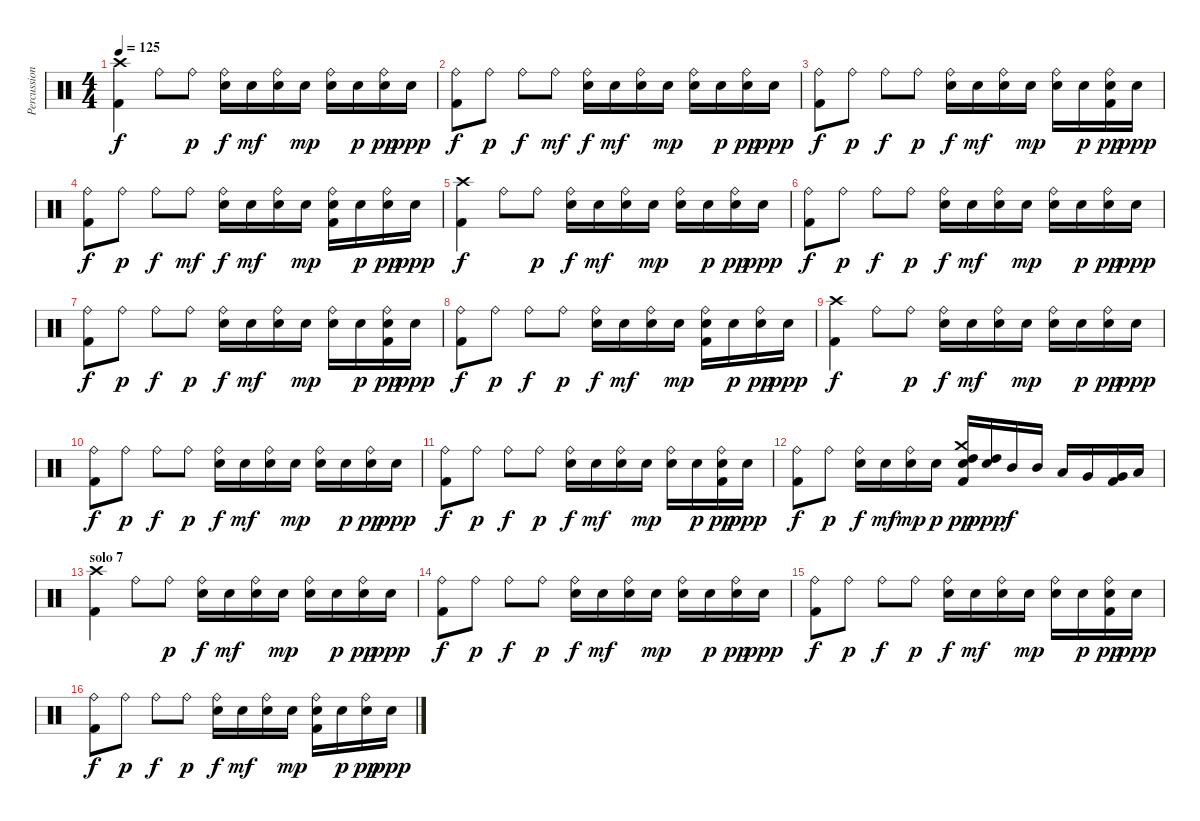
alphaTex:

\track ("Percussion" "Percussion") {instrument percussion}
\staff {score}
\articulation defaults
\ts (4 4)
\tempo 125
\clef neutral
\ks c
("Crash high (hit)" "Kick (hit) 2").4{dy f} "Ride (bell)".8 "Ride (bell)".8{dy p} ("Ride (bell)" "Electric Snare (hit)").16{dy f} "Electric Snare (hit)".16{dy mf} ("Ride (bell)" "Electric Snare (hit)").16 "Electric Snare (hit)".16{dy mp} ("Ride (bell)" "Electric Snare (hit)").16 "Electric Snare (hit)".16{dy p} ("Ride (bell)" "Electric Snare (hit)").16{dy pp} "Electric Snare (hit)".16{dy ppp} |
("Ride (bell)" "Kick (hit) 2").8{dy f} "Ride (bell)".8{dy p} "Ride (bell)".8{dy f} "Ride (bell)".8{dy mf} ("Ride (bell)" "Electric Snare (hit)").16{dy f} "Electric Snare (hit)".16{dy mf} ("Ride (bell)" "Electric Snare (hit)").16 "Electric Snare (hit)".16{dy mp} ("Ride (bell)" "Electric Snare (hit)").16 "Electric Snare (hit)".16{dy p} ("Ride (bell)" "Electric Snare (hit)").16{dy pp} "Electric Snare (hit)".16{dy ppp} |
("Ride (bell)" "Kick (hit) 2").8{dy f} "Ride (bell)".8{dy p} "Ride (bell)".8{dy f} "Ride (bell)".8{dy p} ("Ride (bell)" "Electric Snare (hit)").16{dy f} "Electric Snare (hit)".16{dy mf} ("Ride (bell)" "Electric Snare (hit)").16 "Electric Snare (hit)".16{dy mp} ("Ride (bell)" "Electric Snare (hit)").16 "Electric Snare (hit)".16{dy p} ("Ride (bell)" "Electric Snare (hit)" "Kick (hit) 2").16{dy pp} "Electric Snare (hit)".16{dy ppp} |
("Ride (bell)" "Kick (hit) 2").8{dy f} "Ride (bell)".8{dy p} "Ride (bell)".8{dy f} "Ride (bell)".8{dy mf} ("Ride (bell)" "Electric Snare (hit)").16{dy f} "Electric Snare (hit)".16{dy mf} ("Ride (bell)" "Electric Snare (hit)").16 "Electric Snare (hit)".16{dy mp} ("Ride (bell)" "Electric Snare (hit)" "Kick (hit) 2").16 "Electric Snare (hit)".16{dy p} ("Ride (bell)" "Electric Snare (hit)").16{dy pp} "Electric Snare (hit)".16{dy ppp} |
("Crash high (hit)" "Kick (hit) 2").4{dy f} "Ride (bell)".8 "Ride (bell)".8{dy p} ("Ride (bell)" "Electric Snare (hit)").16{dy f} "Electric Snare (hit)".16{dy mf} ("Ride (bell)" "Electric Snare (hit)").16 "Electric Snare (hit)".16{dy mp} ("Ride (bell)" "Electric Snare (hit)").16 "Electric Snare (hit)".16{dy p} ("Ride (bell)" "Electric Snare (hit)").16{dy pp} "Electric Snare (hit)".16{dy ppp} |
("Ride (bell)" "Kick (hit) 2").8{dy f} "Ride (bell)".8{dy p} "Ride (bell)".8{dy f} "Ride (bell)".8{dy p} ("Ride (bell)" "Electric Snare (hit)").16{dy f} "Electric Snare (hit)".16{dy mf} ("Ride (bell)" "Electric Snare (hit)").16 "Electric Snare (hit)".16{dy mp} ("Ride (bell)" "Electric Snare (hit)").16 "Electric Snare (hit)".16{dy p} ("Ride (bell)" "Electric Snare (hit)").16{dy pp} "Electric Snare (hit)".16{dy ppp} |
("Ride (bell)" "Kick (hit) 2").8{dy f} "Ride (bell)".8{dy p} "Ride (bell)".8{dy f} "Ride (bell)".8{dy p} ("Ride (bell)" "Electric Snare (hit)").16{dy f} "Electric Snare (hit)".16{dy mf} ("Ride (bell)" "Electric Snare (hit)").16 "Electric Snare (hit)".16{dy mp} ("Ride (bell)" "Electric Snare (hit)").16 "Electric Snare (hit)".16{dy p} ("Ride (bell)" "Electric Snare (hit)" "Kick (hit) 2").16{dy pp} "Electric Snare (hit)".16{dy ppp} |
("Ride (bell)" "Kick (hit) 2").8{dy f} "Ride (bell)".8{dy p} "Ride (bell)".8{dy f} "Ride (bell)".8{dy p} ("Ride (bell)" "Electric Snare (hit)").16{dy f} "Electric Snare (hit)".16{dy mf} ("Ride (bell)" "Electric Snare (hit)").16 "Electric Snare (hit)".16{dy mp} ("Ride (bell)" "Electric Snare (hit)" "Kick (hit) 2").16 "Electric Snare (hit)".16{dy p} ("Ride (bell)" "Electric Snare (hit)").16{dy pp} "Electric Snare (hit)".16{dy ppp} |
("Crash high (hit)" "Kick (hit) 2").4{dy f} "Ride (bell)".8 "Ride (bell)".8{dy p} ("Ride (bell)" "Electric Snare (hit)").16{dy f} "Electric Snare (hit)".16{dy mf} ("Ride (bell)" "Electric Snare (hit)").16 "Electric Snare (hit)".16{dy mp} ("Ride (bell)" "Electric Snare (hit)").16 "Electric Snare (hit)".16{dy p} ("Ride (bell)" "Electric Snare (hit)").16{dy pp} "Electric Snare (hit)".16{dy ppp} |
("Ride (bell)" "Kick (hit) 2").8{dy f} "Ride (bell)".8{dy p} "Ride (bell)".8{dy f} "Ride (bell)".8{dy p} ("Ride (bell)" "Electric Snare (hit)").16{dy f} "Electric Snare (hit)".16{dy mf} ("Ride (bell)" "Electric Snare (hit)").16 "Electric Snare (hit)".16{dy mp} ("Ride (bell)" "Electric Snare (hit)").16 "Electric Snare (hit)".16{dy p} ("Ride (bell)" "Electric Snare (hit)").16{dy pp} "Electric Snare (hit)".16{dy ppp} |
("Ride (bell)" "Kick (hit) 2").8{dy f} "Ride (bell)".8{dy p} "Ride (bell)".8{dy f} "Ride (bell)".8{dy p} ("Ride (bell)" "Electric Snare (hit)").16{dy f} "Electric Snare (hit)".16{dy mf} ("Ride (bell)" "Electric Snare (hit)").16 "Electric Snare (hit)".16{dy mp} ("Ride (bell)" "Electric Snare (hit)").16 "Electric Snare (hit)".16{dy p} ("Ride (bell)" "Electric Snare (hit)" "Kick (hit) 2").16{dy pp} "Electric Snare (hit)".16{dy ppp} |
("Ride (bell)" "Kick (hit) 2").8{dy f} "Ride (bell)".8{dy p} ("Ride (bell)" "Electric Snare (hit)").16{dy f} "Electric Snare (hit)".16{dy mf} ("Ride (bell)" "Electric Snare (hit)").16{dy mp} "Electric Snare (hit)".16{dy p} ("Crash medium (hit)" "High Tom (hit)" "Electric Snare (hit)" "Kick (hit) 2").16{dy pp} ("High Tom (hit)" "Electric Snare (hit)").16{dy ppp} "Mid Tom (hit)".16{dy f} "Mid Tom (hit)".16 "Low Tom (hit)".16 "Very Low Tom (hit)".16 ("Very Low Tom (hit)" "Kick (hit) 2").16 "Low Floor Tom (hit)".16 |
\section ("" "solo 7")
("Crash high (hit)" "Kick (hit) 2").4 "Ride (bell)".8 "Ride (bell)".8{dy p} ("Ride (bell)" "Electric Snare (hit)").16{dy f} "Electric Snare (hit)".16{dy mf} ("Ride (bell)" "Electric Snare (hit)").16 "Electric Snare (hit)".16{dy mp} ("Ride (bell)" "Electric Snare (hit)").16 "Electric Snare (hit)".16{dy p} ("Ride (bell)" "Electric Snare (hit)").16{dy pp} "Electric Snare (hit)".16{dy ppp} |
("Ride (bell)" "Kick (hit) 2").8{dy f} "Ride (bell)".8{dy p} "Ride (bell)".8{dy f} "Ride (bell)".8{dy p} ("Ride (bell)" "Electric Snare (hit)").16{dy f} "Electric Snare (hit)".16{dy mf} ("Ride (bell)" "Electric Snare (hit)").16 "Electric Snare (hit)".16{dy mp} ("Ride (bell)" "Electric Snare (hit)").16 "Electric Snare (hit)".16{dy p} ("Ride (bell)" "Electric Snare (hit)").16{dy pp} "Electric Snare (hit)".16{dy ppp} |
("Ride (bell)" "Kick (hit) 2").8{dy f} "Ride (bell)".8{dy p} "Ride (bell)".8{dy f} "Ride (bell)".8{dy p} ("Ride (bell)" "Electric Snare (hit)").16{dy f} "Electric Snare (hit)".16{dy mf} ("Ride (bell)" "Electric Snare (hit)").16 "Electric Snare (hit)".16{dy mp} ("Ride (bell)" "Electric Snare (hit)").16 "Electric Snare (hit)".16{dy p} ("Ride (bell)" "Electric Snare (hit)" "Kick (hit) 2").16{dy pp} "Electric Snare (hit)".16{dy ppp} |
("Ride (bell)" "Kick (hit) 2").8{dy f} "Ride (bell)".8{dy p} "Ride (bell)".8{dy f} "Ride (bell)".8{dy p} ("Ride (bell)" "Electric Snare (hit)").16{dy f} "Electric Snare (hit)".16{dy mf} ("Ride (bell)" "Electric Snare (hit)").16 "Electric Snare (hit)".16{dy mp} ("Ride (bell)" "Electric Snare (hit)" "Kick (hit) 2").16 "Electric Snare (hit)".16{dy p} ("Ride (bell)" "Electric Snare (hit)").16{dy pp} "Electric Snare (hit)".16{dy ppp}
